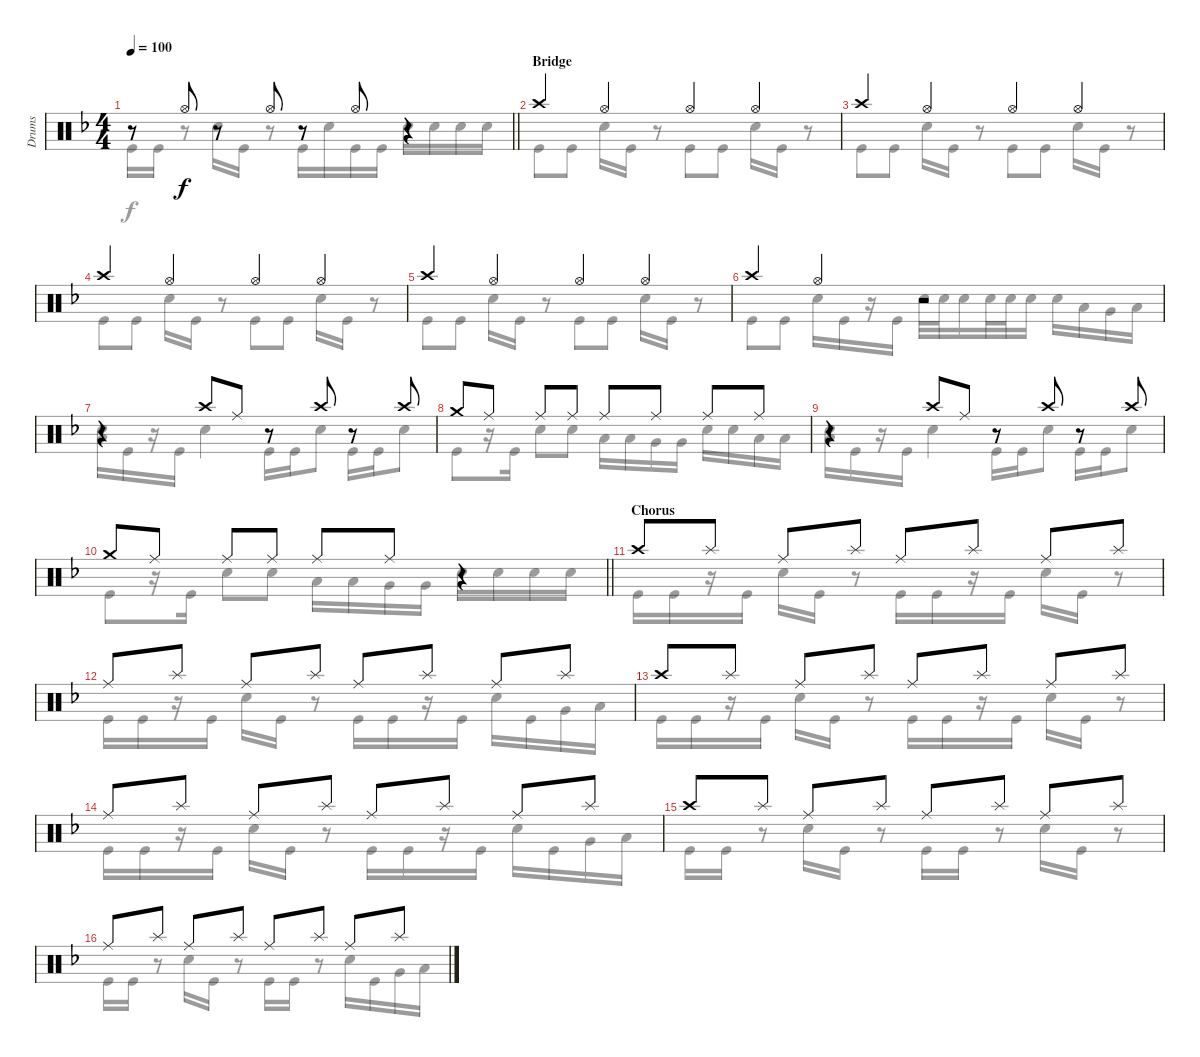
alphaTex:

\track ("Drums" "Drums") {instrument percussion}
\staff {score}
\articulation defaults
\voice
\ts (4 4)
\tempo 100
\clef neutral
\barLineRight lightlight
\ks dminor
r.8{dy f} "Hi-Hat (open)".8 r.8 "Hi-Hat (open)".8 r.8 "Hi-Hat (open)".8 r.4 |
\section ("" "Bridge")
"Crash high (hit)".4 "Hi-Hat (open)".4 "Hi-Hat (open)".4 "Hi-Hat (open)".4 |
"Crash high (hit)".4 "Hi-Hat (open)".4 "Hi-Hat (open)".4 "Hi-Hat (open)".4 |
"Crash high (hit)".4 "Hi-Hat (open)".4 "Hi-Hat (open)".4 "Hi-Hat (open)".4 |
"Crash high (hit)".4 "Hi-Hat (open)".4 "Hi-Hat (open)".4 "Hi-Hat (open)".4 |
"Crash high (hit)".4 "Hi-Hat (open)".4 r.2 |
r.4 "Crash high (hit)".8 "Ride (middle)".8 r.8 "Crash high (hit)".8 r.8 "Crash high (hit)".8 |
"Crash medium (hit)".8 "Ride (middle)".8 "Ride (middle)".8 "Ride (middle)".8 "Ride (middle)".8 "Ride (middle)".8 "Ride (middle)".8 "Ride (middle)".8 |
r.4 "Crash high (hit)".8 "Ride (middle)".8 r.8 "Crash high (hit)".8 r.8 "Crash high (hit)".8 |
\barLineRight lightlight "Crash medium (hit)".8 "Ride (middle)".8 "Ride (middle)".8 "Ride (middle)".8 "Ride (middle)".8 "Ride (middle)".8
r.4 |
\section ("" "Chorus")
"Crash high (hit)".8 "Splash (hit)".8 "Ride (middle)".8 "Splash (hit)".8 "Ride (middle)".8 "Splash (hit)".8 "Ride (middle)".8 "Splash (hit)".8 |
"Ride (middle)".8 "Splash (hit)".8 "Ride (middle)".8 "Splash (hit)".8 "Ride (middle)".8 "Splash (hit)".8 "Ride (middle)".8 "Splash (hit)".8 |
"Crash high (hit)".8 "Splash (hit)".8 "Ride (middle)".8 "Splash (hit)".8 "Ride (middle)".8 "Splash (hit)".8 "Ride (middle)".8 "Splash (hit)".8 |
"Ride (middle)".8 "Splash (hit)".8 "Ride (middle)".8 "Splash (hit)".8 "Ride (middle)".8 "Splash (hit)".8 "Ride (middle)".8 "Splash (hit)".8 |
"Crash high (hit)".8 "Splash (hit)".8 "Ride (middle)".8 "Splash (hit)".8 "Ride (middle)".8 "Splash (hit)".8 "Ride (middle)".8 "Splash (hit)".8 |
"Ride (middle)".8 "Splash (hit)".8 "Ride (middle)".8 "Splash (hit)".8 "Ride (middle)".8 "Splash (hit)".8 "Ride (middle)".8 "Splash (hit)".8
\voice
\clef neutral
\ottava regular
\simile none
\barLineRight lightlight
\ks dminor "Kick (hit)".16{dy f} "Kick (hit)".16
r.8 "Snare (hit) 2".16 "Kick (hit)".16 r.8 "Kick (hit)".16 "Snare (hit) 2".16 "Kick (hit)".16 "Kick (hit)".16 "Snare (hit) 2".16 "Snare (hit) 2".16 "Snare (hit) 2".16 "Snare (hit) 2".16 |
"Kick (hit)".8 "Kick (hit)".8 "Snare (hit) 2".16 "Kick (hit)".16 r.8 "Kick (hit)".8 "Kick (hit)".8 "Snare (hit) 2".16 "Kick (hit)".16 r.8 |
"Kick (hit)".8 "Kick (hit)".8 "Snare (hit) 2".16 "Kick (hit)".16 r.8 "Kick (hit)".8 "Kick (hit)".8 "Snare (hit) 2".16 "Kick (hit)".16 r.8 |
"Kick (hit)".8 "Kick (hit)".8 "Snare (hit) 2".16 "Kick (hit)".16 r.8 "Kick (hit)".8 "Kick (hit)".8 "Snare (hit) 2".16 "Kick (hit)".16 r.8 |
"Kick (hit)".8 "Kick (hit)".8 "Snare (hit) 2".16 "Kick (hit)".16 r.8 "Kick (hit)".8 "Kick (hit)".8 "Snare (hit) 2".16 "Kick (hit)".16 r.8 |
"Kick (hit)".8 "Kick (hit)".8 "Snare (hit) 2".16 "Kick (hit)".16 r.16 "Kick (hit)".16 "Snare (hit) 2".32 "Snare (hit) 2".32 "Snare (hit) 2".16 "Snare (hit) 2".32 "Snare (hit) 2".32 "Snare (hit) 2".16 "Snare (hit) 2".16 "Low Tom (hit)".16 "Very Low Tom (hit)".16 "Low Floor Tom (hit)".16 |
("Snare (hit) 2" "Low Floor Tom (hit)").16 "Kick (hit)".16 r.16 "Kick (hit)".16 "Snare (hit) 2".4 "Kick (hit)".16 "Kick (hit)".16 "Snare (hit) 2".8 "Kick (hit)".16 "Kick (hit)".16 "Snare (hit) 2".8 |
"Kick (hit)".8 r.16 "Kick (hit)".16 "Snare (hit) 2".8 "Snare (hit) 2".8 "Low Tom (hit)".16 "Low Tom (hit)".16 "Very Low Tom (hit)".16 "Very Low Tom (hit)".16 "Snare (hit) 2".16 "Snare (hit) 2".16 "Low Floor Tom (hit)".16 "Low Floor Tom (hit)".16 |
("Snare (hit) 2" "Low Floor Tom (hit)").16 "Kick (hit)".16 r.16 "Kick (hit)".16 "Snare (hit) 2".4 "Kick (hit)".16 "Kick (hit)".16 "Snare (hit) 2".8 "Kick (hit)".16 "Kick (hit)".16 "Snare (hit) 2".8 |
\barLineRight lightlight "Kick (hit)".8
r.16 "Kick (hit)".16 "Snare (hit) 2".8 "Snare (hit) 2".8 "Low Tom (hit)".16 "Low Tom (hit)".16 "Very Low Tom (hit)".16 "Very Low Tom (hit)".16 "Snare (hit) 2".16 "Snare (hit) 2".16 "Snare (hit) 2".16 "Snare (hit) 2".16 |
"Kick (hit)".16 "Kick (hit)".16 r.16 "Kick (hit)".16 "Snare (hit) 2".16 "Kick (hit)".16 r.8 "Kick (hit)".16 "Kick (hit)".16 r.16 "Kick (hit)".16 "Snare (hit) 2".16 "Kick (hit)".16 r.8 |
"Kick (hit)".16 "Kick (hit)".16 r.16 "Kick (hit)".16 "Snare (hit) 2".16 "Kick (hit)".16 r.8 "Kick (hit)".16 "Kick (hit)".16 r.16 "Kick (hit)".16 "Snare (hit) 2".16 "Kick (hit)".16 "Very Low Tom (hit)".16 "Low Floor Tom (hit)".16 |
"Kick (hit)".16 "Kick (hit)".16 r.16 "Kick (hit)".16 "Snare (hit) 2".16 "Kick (hit)".16 r.8 "Kick (hit)".16 "Kick (hit)".16 r.16 "Kick (hit)".16 "Snare (hit) 2".16 "Kick (hit)".16 r.8 |
"Kick (hit)".16 "Kick (hit)".16 r.16 "Kick (hit)".16 "Snare (hit) 2".16 "Kick (hit)".16 r.8 "Kick (hit)".16 "Kick (hit)".16 r.16 "Kick (hit)".16 "Snare (hit) 2".16 "Kick (hit)".16 "Very Low Tom (hit)".16 "Low Floor Tom (hit)".16 |
"Kick (hit)".16 "Kick (hit)".16 r.8 "Snare (hit) 2".16 "Kick (hit)".16 r.8 "Kick (hit)".16 "Kick (hit)".16 r.8 "Snare (hit) 2".16 "Kick (hit)".16 r.8 |
"Kick (hit)".16 "Kick (hit)".16 r.8 "Snare (hit) 2".16 "Kick (hit)".16 r.8 "Kick (hit)".16 "Kick (hit)".16 r.8 "Snare (hit) 2".16 "Kick (hit)".16 "Very Low Tom (hit)".16 "Low Floor Tom (hit)".16
